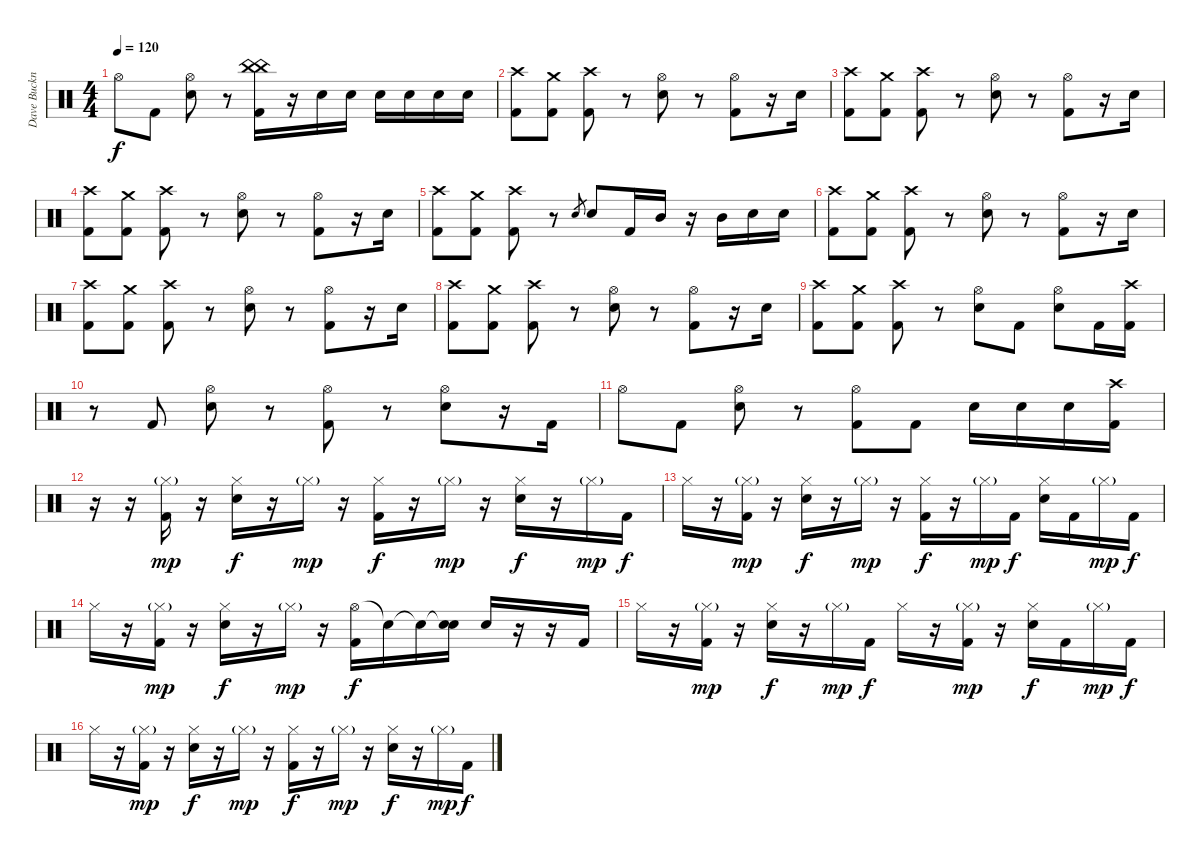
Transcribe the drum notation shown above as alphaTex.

\track ("Dave Buckner RULZ!!! (Drums)" "Dave Buckn") {instrument percussion}
\staff {score}
\articulation defaults
\ts (4 4)
\tempo 120
\clef neutral
\ks c "Hi-Hat (open)".8{dy f} "Kick (hit) 2".8
("Hi-Hat (open)" "Electric Snare (hit)").8 r.8 ("China (hit)" "China (hit)" "Kick (hit) 2").16 r.16 "Electric Snare (hit)".16 "Electric Snare (hit)".16 "Electric Snare (hit)".16 "Electric Snare (hit)".16 "Electric Snare (hit)".16 "Electric Snare (hit)".16 |
("Crash high (hit)" "Kick (hit) 2").8 ("Crash medium (hit)" "Kick (hit) 2").8 ("Crash high (hit)" "Kick (hit) 2").8 r.8 ("Hi-Hat (open)" "Electric Snare (hit)").8 r.8 ("Hi-Hat (open)" "Kick (hit) 2").8 r.16 "Electric Snare (hit)".16 |
("Crash high (hit)" "Kick (hit) 2").8 ("Crash medium (hit)" "Kick (hit) 2").8 ("Crash high (hit)" "Kick (hit) 2").8 r.8 ("Hi-Hat (open)" "Electric Snare (hit)").8 r.8 ("Hi-Hat (open)" "Kick (hit) 2").8 r.16 "Electric Snare (hit)".16 |
("Crash high (hit)" "Kick (hit) 2").8 ("Crash medium (hit)" "Kick (hit) 2").8 ("Crash high (hit)" "Kick (hit) 2").8 r.8 ("Hi-Hat (open)" "Electric Snare (hit)").8 r.8 ("Hi-Hat (open)" "Kick (hit) 2").8 r.16 "Electric Snare (hit)".16 |
("Crash high (hit)" "Kick (hit) 2").8 ("Crash medium (hit)" "Kick (hit) 2").8 ("Crash high (hit)" "Kick (hit) 2").8 r.8 "Electric Snare (hit)".8{gr} "Electric Snare (hit)".8 "Kick (hit) 2".16 "Mid Tom (hit)".16 r.16 "Mid Tom (hit)".16 "Electric Snare (hit)".16 "Electric Snare (hit)".16 |
("Crash high (hit)" "Kick (hit) 2").8 ("Crash medium (hit)" "Kick (hit) 2").8 ("Crash high (hit)" "Kick (hit) 2").8 r.8 ("Hi-Hat (open)" "Electric Snare (hit)").8 r.8 ("Hi-Hat (open)" "Kick (hit) 2").8 r.16 "Electric Snare (hit)".16 |
("Crash high (hit)" "Kick (hit) 2").8 ("Crash medium (hit)" "Kick (hit) 2").8 ("Crash high (hit)" "Kick (hit) 2").8 r.8 ("Hi-Hat (open)" "Electric Snare (hit)").8 r.8 ("Hi-Hat (open)" "Kick (hit) 2").8 r.16 "Electric Snare (hit)".16 |
("Crash high (hit)" "Kick (hit) 2").8 ("Crash medium (hit)" "Kick (hit) 2").8 ("Crash high (hit)" "Kick (hit) 2").8 r.8 ("Hi-Hat (open)" "Electric Snare (hit)").8 r.8 ("Hi-Hat (open)" "Kick (hit) 2").8 r.16 "Electric Snare (hit)".16 |
("Crash high (hit)" "Kick (hit) 2").8 ("Crash medium (hit)" "Kick (hit) 2").8 ("Crash high (hit)" "Kick (hit) 2").8 r.8 ("Hi-Hat (open)" "Electric Snare (hit)").8 "Kick (hit) 2".8 ("Hi-Hat (open)" "Electric Snare (hit)").8 "Kick (hit) 2".16 ("Crash high (hit)" "Kick (hit) 2").16 |
r.8 "Kick (hit) 2".8 ("Hi-Hat (open)" "Electric Snare (hit)").8 r.8 ("Hi-Hat (open)" "Kick (hit) 2").8 r.8 ("Hi-Hat (open)" "Electric Snare (hit)").8 r.16 "Kick (hit) 2".16 |
"Hi-Hat (open)".8 "Kick (hit) 2".8 ("Hi-Hat (open)" "Electric Snare (hit)").8 r.8 ("Hi-Hat (open)" "Kick (hit) 2").8 "Kick (hit) 2".8 "Electric Snare (hit)".16 "Electric Snare (hit)".16 "Electric Snare (hit)".16 ("Crash high (hit)" "Kick (hit) 2").16 |
r.16 r.16 ("Hi-Hat (closed)"{g} "Kick (hit) 2").16{dy mp} r.16 ("Hi-Hat (closed)" "Electric Snare (hit)").16{dy f} r.16 "Hi-Hat (closed)"{g}.16{dy mp} r.16 ("Hi-Hat (closed)" "Kick (hit) 2").16{dy f} r.16 "Hi-Hat (closed)"{g}.16{dy mp} r.16 ("Hi-Hat (closed)" "Electric Snare (hit)").16{dy f} r.16 "Hi-Hat (closed)"{g}.16{dy mp} "Kick (hit) 2".16{dy f} |
"Hi-Hat (closed)".16 r.16 ("Hi-Hat (closed)"{g} "Kick (hit) 2").16{dy mp} r.16 ("Hi-Hat (closed)" "Electric Snare (hit)").16{dy f} r.16 "Hi-Hat (closed)"{g}.16{dy mp} r.16 ("Hi-Hat (closed)" "Kick (hit) 2").16{dy f} r.16 "Hi-Hat (closed)"{g}.16{dy mp} "Kick (hit) 2".16{dy f} ("Hi-Hat (closed)" "Electric Snare (hit)").16 "Kick (hit) 2".16 "Hi-Hat (closed)"{g}.16{dy mp} "Kick (hit) 2".16{dy f} |
"Hi-Hat (closed)".16 r.16 ("Hi-Hat (closed)"{g} "Kick (hit) 2").16{dy mp} r.16 ("Hi-Hat (closed)" "Electric Snare (hit)").16{dy f} r.16 "Hi-Hat (closed)"{g}.16{dy mp} r.16 ("Hi-Hat (open)" "Kick (hit) 2").16{dy f} "Snare (hit)"{t}.16 "Snare (hit)"{t}.16 ("Snare (hit)"{t} "Electric Snare (hit)").16 "Electric Snare (hit)".16 r.16 r.16 "Kick (hit) 2".16 |
"Hi-Hat (closed)".16 r.16 ("Hi-Hat (closed)"{g} "Kick (hit) 2").16{dy mp} r.16 ("Hi-Hat (closed)" "Electric Snare (hit)").16{dy f} r.16 "Hi-Hat (closed)"{g}.16{dy mp} "Kick (hit) 2".16{dy f} "Hi-Hat (closed)".16 r.16 ("Hi-Hat (closed)"{g} "Kick (hit) 2").16{dy mp} r.16 ("Hi-Hat (closed)" "Electric Snare (hit)").16{dy f} "Kick (hit) 2".16 "Hi-Hat (closed)"{g}.16{dy mp} "Kick (hit) 2".16{dy f} |
"Hi-Hat (closed)".16 r.16 ("Hi-Hat (closed)"{g} "Kick (hit) 2").16{dy mp} r.16 ("Hi-Hat (closed)" "Electric Snare (hit)").16{dy f} r.16 "Hi-Hat (closed)"{g}.16{dy mp} r.16 ("Hi-Hat (closed)" "Kick (hit) 2").16{dy f} r.16 "Hi-Hat (closed)"{g}.16{dy mp} r.16 ("Hi-Hat (closed)" "Electric Snare (hit)").16{dy f} r.16 "Hi-Hat (closed)"{g}.16{dy mp} "Kick (hit) 2".16{dy f}
